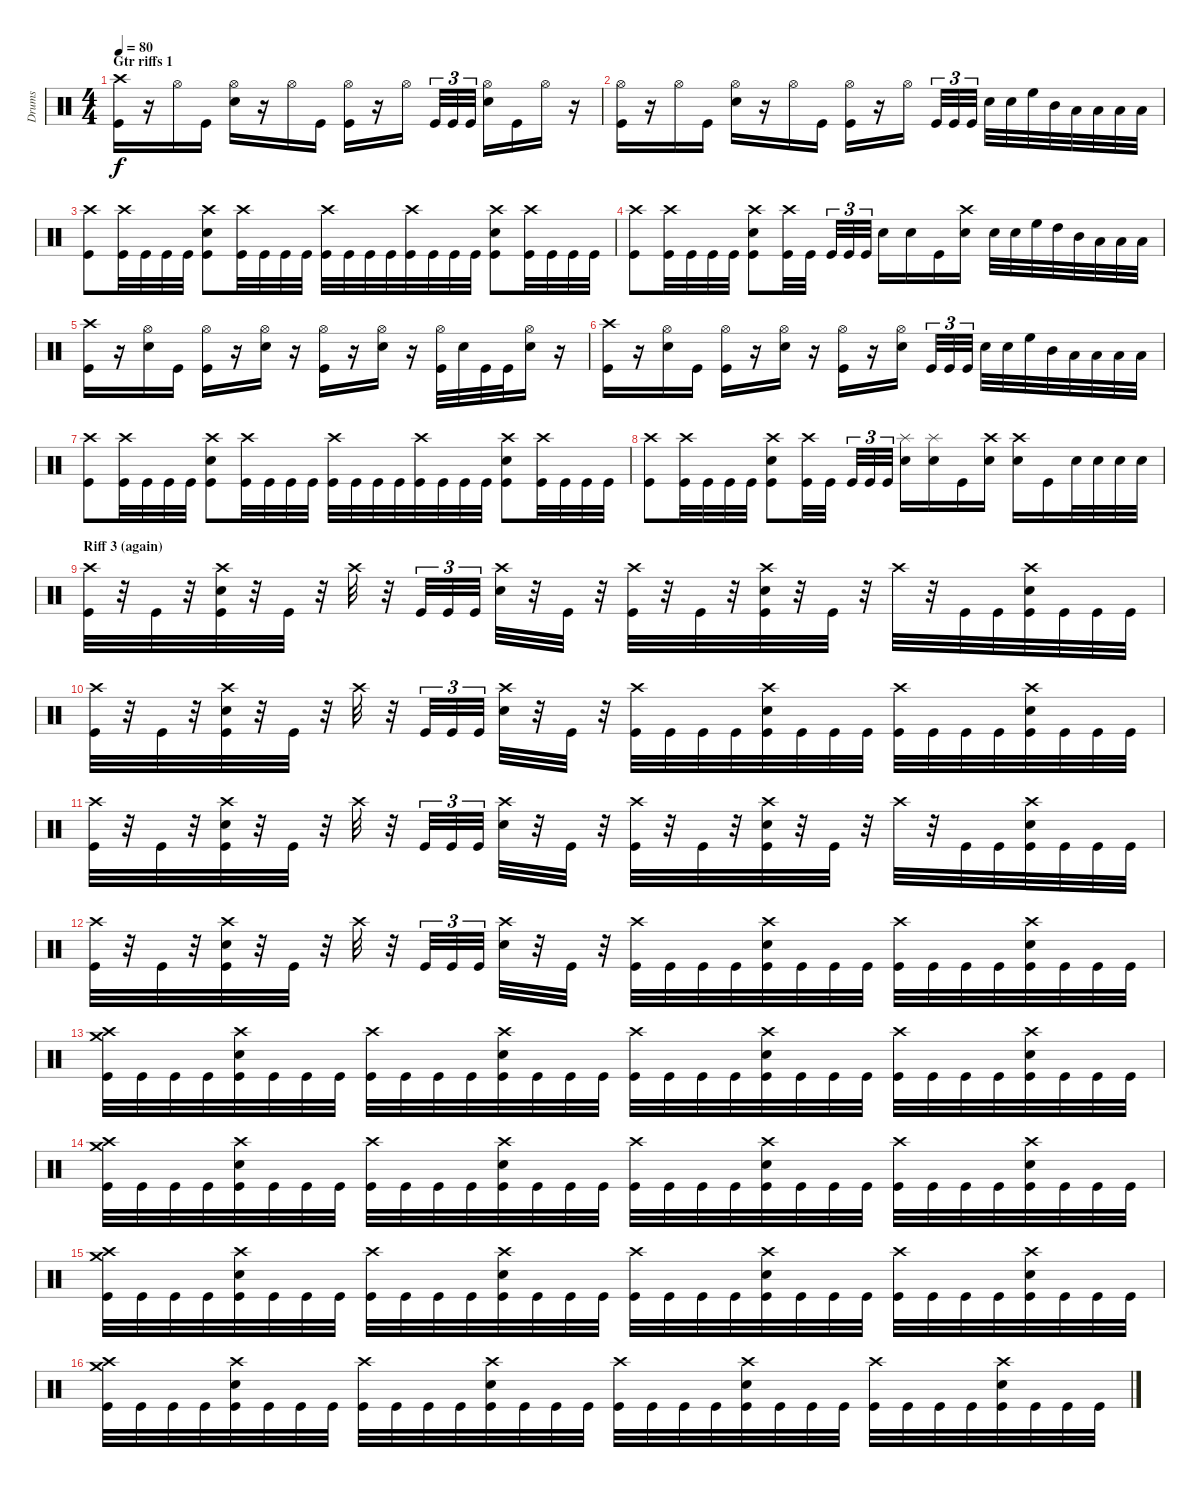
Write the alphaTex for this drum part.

\track ("Drums" "Drums") {instrument percussion}
\staff {score}
\articulation defaults
\ts (4 4)
\section ("" "Gtr riffs 1")
\tempo 80
\clef neutral
\ks c
("Crash high (hit)" "Kick (hit)").16{dy f} r.16 "Hi-Hat (open)".16 "Kick (hit)".16 ("Hi-Hat (open)" "Electric Snare (hit)").16 r.16 "Hi-Hat (open)".16 "Kick (hit)".16 ("Hi-Hat (open)" "Kick (hit)").16 r.16 "Hi-Hat (open)".16 "Kick (hit)".32{tu (3 2)} "Kick (hit)".32{tu (3 2)} "Kick (hit)".32{tu (3 2)} ("Hi-Hat (open)" "Electric Snare (hit)").16 "Kick (hit)".16 "Hi-Hat (open)".16 r.16 |
("Hi-Hat (open)" "Kick (hit)").16 r.16 "Hi-Hat (open)".16 "Kick (hit)".16 ("Hi-Hat (open)" "Electric Snare (hit)").16 r.16 "Hi-Hat (open)".16 "Kick (hit)".16 ("Hi-Hat (open)" "Kick (hit)").16 r.16 "Hi-Hat (open)".16 "Kick (hit)".32{tu (3 2)} "Kick (hit)".32{tu (3 2)} "Kick (hit)".32{tu (3 2)} "Electric Snare (hit)".32 "Electric Snare (hit)".32 "High Floor Tom (hit)".32 "Mid Tom (hit)".32 "Low Tom (hit)".32 "Low Floor Tom (hit)".32 "Low Floor Tom (hit)".32 "Low Floor Tom (hit)".32 |
("Crash high (hit)" "Kick (hit)").8 ("Crash high (hit)" "Kick (hit)").32 "Kick (hit)".32 "Kick (hit)".32 "Kick (hit)".32 ("Crash high (hit)" "Electric Snare (hit)" "Kick (hit)").8 ("Crash high (hit)" "Kick (hit)").32 "Kick (hit)".32 "Kick (hit)".32 "Kick (hit)".32 ("Crash high (hit)" "Kick (hit)").32 "Kick (hit)".32 "Kick (hit)".32 "Kick (hit)".32 ("Crash high (hit)" "Kick (hit)").32 "Kick (hit)".32 "Kick (hit)".32 "Kick (hit)".32 ("Crash high (hit)" "Electric Snare (hit)" "Kick (hit)").8 ("Crash high (hit)" "Kick (hit)").32 "Kick (hit)".32 "Kick (hit)".32 "Kick (hit)".32 |
("Crash high (hit)" "Kick (hit)").8 ("Crash high (hit)" "Kick (hit)").32 "Kick (hit)".32 "Kick (hit)".32 "Kick (hit)".32 ("Crash high (hit)" "Electric Snare (hit)" "Kick (hit)").8 ("Crash high (hit)" "Kick (hit)").32 "Kick (hit)".32 "Kick (hit)".32{tu (3 2)} "Kick (hit)".32{tu (3 2)} "Kick (hit)".32{tu (3 2)} "Electric Snare (hit)".16 "Electric Snare (hit)".16 "Kick (hit)".16 ("Crash high (hit)" "Electric Snare (hit)").16 "Electric Snare (hit)".32 "Electric Snare (hit)".32 "High Floor Tom (hit)".32 "High Tom (hit)".32 "Mid Tom (hit)".32 "Low Tom (hit)".32 "Low Floor Tom (hit)".32 "Low Floor Tom (hit)".32 |
("Crash high (hit)" "Kick (hit)").16 r.16 ("Hi-Hat (open)" "Electric Snare (hit)").16 "Kick (hit)".16 ("Hi-Hat (open)" "Kick (hit)").16 r.16 ("Hi-Hat (open)" "Electric Snare (hit)").16 r.16 ("Hi-Hat (open)" "Kick (hit)").16 r.16 ("Hi-Hat (open)" "Electric Snare (hit)").16 r.16 ("Hi-Hat (open)" "Kick (hit)").32 "Electric Snare (hit)".32 "Kick (hit)".32 "Kick (hit)".32 ("Hi-Hat (open)" "Electric Snare (hit)").16 r.16 |
("Crash high (hit)" "Kick (hit)").16 r.16 ("Hi-Hat (open)" "Electric Snare (hit)").16 "Kick (hit)".16 ("Hi-Hat (open)" "Kick (hit)").16 r.16 ("Hi-Hat (open)" "Electric Snare (hit)").16 r.16 ("Hi-Hat (open)" "Kick (hit)").16 r.16 ("Hi-Hat (open)" "Electric Snare (hit)").16 "Kick (hit)".32{tu (3 2)} "Kick (hit)".32{tu (3 2)} "Kick (hit)".32{tu (3 2)} "Electric Snare (hit)".32 "Electric Snare (hit)".32 "High Floor Tom (hit)".32 "Mid Tom (hit)".32 "Low Tom (hit)".32 "Low Floor Tom (hit)".32 "Low Floor Tom (hit)".32 "Low Floor Tom (hit)".32 |
("Crash high (hit)" "Kick (hit)").8 ("Crash high (hit)" "Kick (hit)").32 "Kick (hit)".32 "Kick (hit)".32 "Kick (hit)".32 ("Crash high (hit)" "Electric Snare (hit)" "Kick (hit)").8 ("Crash high (hit)" "Kick (hit)").32 "Kick (hit)".32 "Kick (hit)".32 "Kick (hit)".32 ("Crash high (hit)" "Kick (hit)").32 "Kick (hit)".32 "Kick (hit)".32 "Kick (hit)".32 ("Crash high (hit)" "Kick (hit)").32 "Kick (hit)".32 "Kick (hit)".32 "Kick (hit)".32 ("Crash high (hit)" "Electric Snare (hit)" "Kick (hit)").8 ("Crash high (hit)" "Kick (hit)").32 "Kick (hit)".32 "Kick (hit)".32 "Kick (hit)".32 |
("Crash high (hit)" "Kick (hit)").8 ("Crash high (hit)" "Kick (hit)").32 "Kick (hit)".32 "Kick (hit)".32 "Kick (hit)".32 ("Crash high (hit)" "Electric Snare (hit)" "Kick (hit)").8 ("Crash high (hit)" "Kick (hit)").32 "Kick (hit)".32 "Kick (hit)".32{tu (3 2)} "Kick (hit)".32{tu (3 2)} "Kick (hit)".32{tu (3 2)} ("Splash (hit)" "Electric Snare (hit)").16 ("Splash (hit)" "Electric Snare (hit)").16 "Kick (hit)".16 ("Crash high (hit)" "Electric Snare (hit)").16 ("Crash high (hit)" "Electric Snare (hit)").16 "Kick (hit)".16 "Electric Snare (hit)".32 "Electric Snare (hit)".32 "Electric Snare (hit)".32 "Electric Snare (hit)".32 |
\section ("" "Riff 3 (again)")
("Crash high (hit)" "Kick (hit)").32 r.32 "Kick (hit)".32 r.32 ("Crash high (hit)" "Electric Snare (hit)" "Kick (hit)").32 r.32 "Kick (hit)".32 r.32 "Crash high (hit)".32 r.32 "Kick (hit)".32{tu (3 2)} "Kick (hit)".32{tu (3 2)} "Kick (hit)".32{tu (3 2)} ("Crash high (hit)" "Electric Snare (hit)").32 r.32 "Kick (hit)".32 r.32 ("Crash high (hit)" "Kick (hit)").32 r.32 "Kick (hit)".32 r.32 ("Crash high (hit)" "Electric Snare (hit)" "Kick (hit)").32 r.32 "Kick (hit)".32 r.32 "Crash high (hit)".32 r.32 "Kick (hit)".32 "Kick (hit)".32 ("Crash high (hit)" "Electric Snare (hit)" "Kick (hit)").32 "Kick (hit)".32 "Kick (hit)".32 "Kick (hit)".32 |
("Crash high (hit)" "Kick (hit)").32 r.32 "Kick (hit)".32 r.32 ("Crash high (hit)" "Electric Snare (hit)" "Kick (hit)").32 r.32 "Kick (hit)".32 r.32 "Crash high (hit)".32 r.32 "Kick (hit)".32{tu (3 2)} "Kick (hit)".32{tu (3 2)} "Kick (hit)".32{tu (3 2)} ("Crash high (hit)" "Electric Snare (hit)").32 r.32 "Kick (hit)".32 r.32 ("Crash high (hit)" "Kick (hit)").32 "Kick (hit)".32 "Kick (hit)".32 "Kick (hit)".32 ("Crash high (hit)" "Electric Snare (hit)" "Kick (hit)").32 "Kick (hit)".32 "Kick (hit)".32 "Kick (hit)".32 ("Crash high (hit)" "Kick (hit)").32 "Kick (hit)".32 "Kick (hit)".32 "Kick (hit)".32 ("Crash high (hit)" "Electric Snare (hit)" "Kick (hit)").32 "Kick (hit)".32 "Kick (hit)".32 "Kick (hit)".32 |
("Crash high (hit)" "Kick (hit)").32 r.32 "Kick (hit)".32 r.32 ("Crash high (hit)" "Electric Snare (hit)" "Kick (hit)").32 r.32 "Kick (hit)".32 r.32 "Crash high (hit)".32 r.32 "Kick (hit)".32{tu (3 2)} "Kick (hit)".32{tu (3 2)} "Kick (hit)".32{tu (3 2)} ("Crash high (hit)" "Electric Snare (hit)").32 r.32 "Kick (hit)".32 r.32 ("Crash high (hit)" "Kick (hit)").32 r.32 "Kick (hit)".32 r.32 ("Crash high (hit)" "Electric Snare (hit)" "Kick (hit)").32 r.32 "Kick (hit)".32 r.32 "Crash high (hit)".32 r.32 "Kick (hit)".32 "Kick (hit)".32 ("Crash high (hit)" "Electric Snare (hit)" "Kick (hit)").32 "Kick (hit)".32 "Kick (hit)".32 "Kick (hit)".32 |
("Crash high (hit)" "Kick (hit)").32 r.32 "Kick (hit)".32 r.32 ("Crash high (hit)" "Electric Snare (hit)" "Kick (hit)").32 r.32 "Kick (hit)".32 r.32 "Crash high (hit)".32 r.32 "Kick (hit)".32{tu (3 2)} "Kick (hit)".32{tu (3 2)} "Kick (hit)".32{tu (3 2)} ("Crash high (hit)" "Electric Snare (hit)").32 r.32 "Kick (hit)".32 r.32 ("Crash high (hit)" "Kick (hit)").32 "Kick (hit)".32 "Kick (hit)".32 "Kick (hit)".32 ("Crash high (hit)" "Electric Snare (hit)" "Kick (hit)").32 "Kick (hit)".32 "Kick (hit)".32 "Kick (hit)".32 ("Crash high (hit)" "Kick (hit)").32 "Kick (hit)".32 "Kick (hit)".32 "Kick (hit)".32 ("Crash high (hit)" "Electric Snare (hit)" "Kick (hit)").32 "Kick (hit)".32 "Kick (hit)".32 "Kick (hit)".32 |
("Crash high (hit)" "Crash medium (hit)" "Kick (hit)").32 "Kick (hit)".32 "Kick (hit)".32 "Kick (hit)".32 ("Crash high (hit)" "Electric Snare (hit)" "Kick (hit)").32 "Kick (hit)".32 "Kick (hit)".32 "Kick (hit)".32 ("Crash high (hit)" "Kick (hit)").32 "Kick (hit)".32 "Kick (hit)".32 "Kick (hit)".32 ("Crash high (hit)" "Electric Snare (hit)" "Kick (hit)").32 "Kick (hit)".32 "Kick (hit)".32 "Kick (hit)".32 ("Crash high (hit)" "Kick (hit)").32 "Kick (hit)".32 "Kick (hit)".32 "Kick (hit)".32 ("Crash high (hit)" "Electric Snare (hit)" "Kick (hit)").32 "Kick (hit)".32 "Kick (hit)".32 "Kick (hit)".32 ("Crash high (hit)" "Kick (hit)").32 "Kick (hit)".32 "Kick (hit)".32 "Kick (hit)".32 ("Crash high (hit)" "Electric Snare (hit)" "Kick (hit)").32 "Kick (hit)".32 "Kick (hit)".32 "Kick (hit)".32 |
("Crash high (hit)" "Crash medium (hit)" "Kick (hit)").32 "Kick (hit)".32 "Kick (hit)".32 "Kick (hit)".32 ("Crash high (hit)" "Electric Snare (hit)" "Kick (hit)").32 "Kick (hit)".32 "Kick (hit)".32 "Kick (hit)".32 ("Crash high (hit)" "Kick (hit)").32 "Kick (hit)".32 "Kick (hit)".32 "Kick (hit)".32 ("Crash high (hit)" "Electric Snare (hit)" "Kick (hit)").32 "Kick (hit)".32 "Kick (hit)".32 "Kick (hit)".32 ("Crash high (hit)" "Kick (hit)").32 "Kick (hit)".32 "Kick (hit)".32 "Kick (hit)".32 ("Crash high (hit)" "Electric Snare (hit)" "Kick (hit)").32 "Kick (hit)".32 "Kick (hit)".32 "Kick (hit)".32 ("Crash high (hit)" "Kick (hit)").32 "Kick (hit)".32 "Kick (hit)".32 "Kick (hit)".32 ("Crash high (hit)" "Electric Snare (hit)" "Kick (hit)").32 "Kick (hit)".32 "Kick (hit)".32 "Kick (hit)".32 |
("Crash high (hit)" "Crash medium (hit)" "Kick (hit)").32 "Kick (hit)".32 "Kick (hit)".32 "Kick (hit)".32 ("Crash high (hit)" "Electric Snare (hit)" "Kick (hit)").32 "Kick (hit)".32 "Kick (hit)".32 "Kick (hit)".32 ("Crash high (hit)" "Kick (hit)").32 "Kick (hit)".32 "Kick (hit)".32 "Kick (hit)".32 ("Crash high (hit)" "Electric Snare (hit)" "Kick (hit)").32 "Kick (hit)".32 "Kick (hit)".32 "Kick (hit)".32 ("Crash high (hit)" "Kick (hit)").32 "Kick (hit)".32 "Kick (hit)".32 "Kick (hit)".32 ("Crash high (hit)" "Electric Snare (hit)" "Kick (hit)").32 "Kick (hit)".32 "Kick (hit)".32 "Kick (hit)".32 ("Crash high (hit)" "Kick (hit)").32 "Kick (hit)".32 "Kick (hit)".32 "Kick (hit)".32 ("Crash high (hit)" "Electric Snare (hit)" "Kick (hit)").32 "Kick (hit)".32 "Kick (hit)".32 "Kick (hit)".32 |
("Crash high (hit)" "Crash medium (hit)" "Kick (hit)").32 "Kick (hit)".32 "Kick (hit)".32 "Kick (hit)".32 ("Crash high (hit)" "Electric Snare (hit)" "Kick (hit)").32 "Kick (hit)".32 "Kick (hit)".32 "Kick (hit)".32 ("Crash high (hit)" "Kick (hit)").32 "Kick (hit)".32 "Kick (hit)".32 "Kick (hit)".32 ("Crash high (hit)" "Electric Snare (hit)" "Kick (hit)").32 "Kick (hit)".32 "Kick (hit)".32 "Kick (hit)".32 ("Crash high (hit)" "Kick (hit)").32 "Kick (hit)".32 "Kick (hit)".32 "Kick (hit)".32 ("Crash high (hit)" "Electric Snare (hit)" "Kick (hit)").32 "Kick (hit)".32 "Kick (hit)".32 "Kick (hit)".32 ("Crash high (hit)" "Kick (hit)").32 "Kick (hit)".32 "Kick (hit)".32 "Kick (hit)".32 ("Crash high (hit)" "Electric Snare (hit)" "Kick (hit)").32 "Kick (hit)".32 "Kick (hit)".32 "Kick (hit)".32
